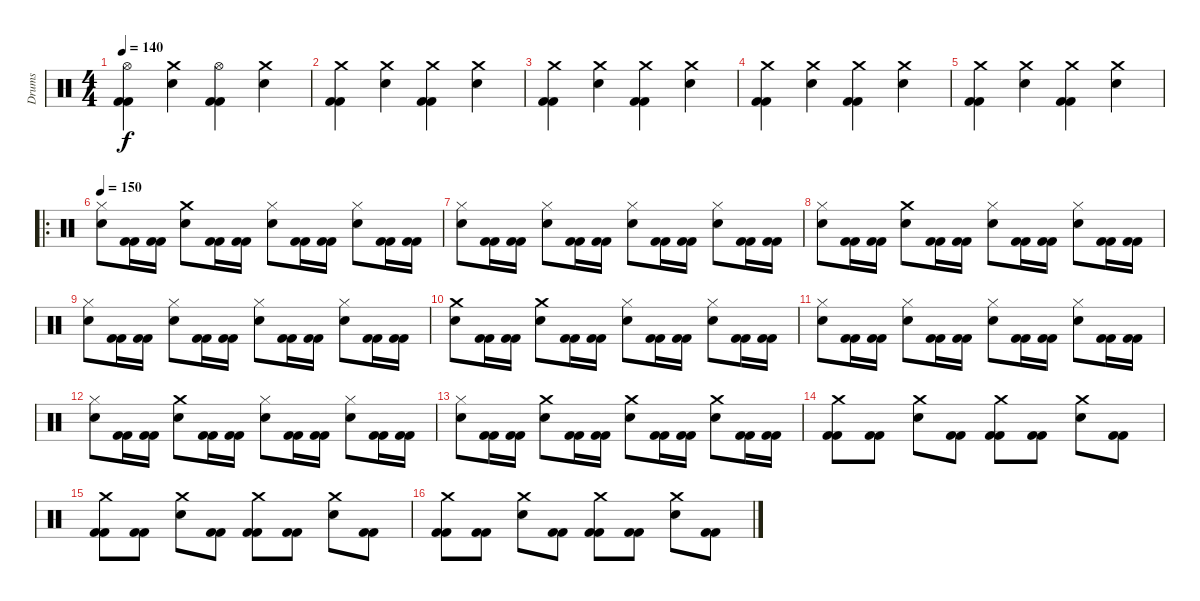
\track ("Drums" "Drums") {instrument percussion}
\staff {score}
\articulation defaults
\ts (4 4)
\tempo 140
\clef neutral
\ks c
("Hi-Hat (open)" "Kick (hit) 2" "Kick (hit) 2").4{dy f} ("Electric Snare (hit)" "Crash medium (hit)").4 ("Kick (hit) 2" "Kick (hit) 2" "Hi-Hat (open)").4 ("Crash medium (hit)" "Electric Snare (hit)").4 |
("Crash medium (hit)" "Kick (hit) 2" "Kick (hit) 2").4 ("Electric Snare (hit)" "Crash medium (hit)").4 ("Kick (hit) 2" "Kick (hit) 2" "Crash medium (hit)").4 ("Crash medium (hit)" "Electric Snare (hit)").4 |
("Crash medium (hit)" "Kick (hit) 2" "Kick (hit) 2").4 ("Electric Snare (hit)" "Crash medium (hit)").4 ("Kick (hit) 2" "Kick (hit) 2" "Crash medium (hit)").4 ("Crash medium (hit)" "Electric Snare (hit)").4 |
("Crash medium (hit)" "Kick (hit) 2" "Kick (hit) 2").4 ("Electric Snare (hit)" "Crash medium (hit)").4 ("Kick (hit) 2" "Kick (hit) 2" "Crash medium (hit)").4 ("Crash medium (hit)" "Electric Snare (hit)").4 |
("Crash medium (hit)" "Kick (hit) 2" "Kick (hit) 2").4 ("Electric Snare (hit)" "Crash medium (hit)").4 ("Kick (hit) 2" "Kick (hit) 2" "Crash medium (hit)").4 ("Crash medium (hit)" "Electric Snare (hit)").4 |
\ro
\tempo 150
("Hi-Hat (closed)" "Electric Snare (hit)").8 ("Kick (hit) 2" "Kick (hit) 2").16 ("Kick (hit) 2" "Kick (hit) 2").16 ("Electric Snare (hit)" "Crash medium (hit)").8 ("Kick (hit) 2" "Kick (hit) 2").16 ("Kick (hit) 2" "Kick (hit) 2").16 ("Hi-Hat (closed)" "Electric Snare (hit)").8 ("Kick (hit) 2" "Kick (hit) 2").16 ("Kick (hit) 2" "Kick (hit) 2").16 ("Electric Snare (hit)" "Hi-Hat (closed)").8 ("Kick (hit) 2" "Kick (hit) 2").16 ("Kick (hit) 2" "Kick (hit) 2").16 |
("Electric Snare (hit)" "Hi-Hat (closed)").8 ("Kick (hit) 2" "Kick (hit) 2").16 ("Kick (hit) 2" "Kick (hit) 2").16 ("Hi-Hat (closed)" "Electric Snare (hit)").8 ("Kick (hit) 2" "Kick (hit) 2").16 ("Kick (hit) 2" "Kick (hit) 2").16 ("Electric Snare (hit)" "Hi-Hat (closed)").8 ("Kick (hit) 2" "Kick (hit) 2").16 ("Kick (hit) 2" "Kick (hit) 2").16 ("Hi-Hat (closed)" "Electric Snare (hit)").8 ("Kick (hit) 2" "Kick (hit) 2").16 ("Kick (hit) 2" "Kick (hit) 2").16 |
("Electric Snare (hit)" "Hi-Hat (closed)").8 ("Kick (hit) 2" "Kick (hit) 2").16 ("Kick (hit) 2" "Kick (hit) 2").16 ("Crash medium (hit)" "Electric Snare (hit)").8 ("Kick (hit) 2" "Kick (hit) 2").16 ("Kick (hit) 2" "Kick (hit) 2").16 ("Electric Snare (hit)" "Hi-Hat (closed)").8 ("Kick (hit) 2" "Kick (hit) 2").16 ("Kick (hit) 2" "Kick (hit) 2").16 ("Hi-Hat (closed)" "Electric Snare (hit)").8 ("Kick (hit) 2" "Kick (hit) 2").16 ("Kick (hit) 2" "Kick (hit) 2").16 |
("Hi-Hat (closed)" "Electric Snare (hit)").8 ("Kick (hit) 2" "Kick (hit) 2").16 ("Kick (hit) 2" "Kick (hit) 2").16 ("Electric Snare (hit)" "Hi-Hat (closed)").8 ("Kick (hit) 2" "Kick (hit) 2").16 ("Kick (hit) 2" "Kick (hit) 2").16 ("Hi-Hat (closed)" "Electric Snare (hit)").8 ("Kick (hit) 2" "Kick (hit) 2").16 ("Kick (hit) 2" "Kick (hit) 2").16 ("Electric Snare (hit)" "Hi-Hat (closed)").8 ("Kick (hit) 2" "Kick (hit) 2").16 ("Kick (hit) 2" "Kick (hit) 2").16 |
("Crash medium (hit)" "Electric Snare (hit)").8 ("Kick (hit) 2" "Kick (hit) 2").16 ("Kick (hit) 2" "Kick (hit) 2").16 ("Electric Snare (hit)" "Crash medium (hit)").8 ("Kick (hit) 2" "Kick (hit) 2").16 ("Kick (hit) 2" "Kick (hit) 2").16 ("Hi-Hat (closed)" "Electric Snare (hit)").8 ("Kick (hit) 2" "Kick (hit) 2").16 ("Kick (hit) 2" "Kick (hit) 2").16 ("Electric Snare (hit)" "Hi-Hat (closed)").8 ("Kick (hit) 2" "Kick (hit) 2").16 ("Kick (hit) 2" "Kick (hit) 2").16 |
("Electric Snare (hit)" "Hi-Hat (closed)").8 ("Kick (hit) 2" "Kick (hit) 2").16 ("Kick (hit) 2" "Kick (hit) 2").16 ("Hi-Hat (closed)" "Electric Snare (hit)").8 ("Kick (hit) 2" "Kick (hit) 2").16 ("Kick (hit) 2" "Kick (hit) 2").16 ("Electric Snare (hit)" "Hi-Hat (closed)").8 ("Kick (hit) 2" "Kick (hit) 2").16 ("Kick (hit) 2" "Kick (hit) 2").16 ("Hi-Hat (closed)" "Electric Snare (hit)").8 ("Kick (hit) 2" "Kick (hit) 2").16 ("Kick (hit) 2" "Kick (hit) 2").16 |
("Electric Snare (hit)" "Hi-Hat (closed)").8 ("Kick (hit) 2" "Kick (hit) 2").16 ("Kick (hit) 2" "Kick (hit) 2").16 ("Crash medium (hit)" "Electric Snare (hit)").8 ("Kick (hit) 2" "Kick (hit) 2").16 ("Kick (hit) 2" "Kick (hit) 2").16 ("Electric Snare (hit)" "Hi-Hat (closed)").8 ("Kick (hit) 2" "Kick (hit) 2").16 ("Kick (hit) 2" "Kick (hit) 2").16 ("Hi-Hat (closed)" "Electric Snare (hit)").8 ("Kick (hit) 2" "Kick (hit) 2").16 ("Kick (hit) 2" "Kick (hit) 2").16 |
("Hi-Hat (closed)" "Electric Snare (hit)").8 ("Kick (hit) 2" "Kick (hit) 2").16 ("Kick (hit) 2" "Kick (hit) 2").16 ("Electric Snare (hit)" "Crash medium (hit)").8 ("Kick (hit) 2" "Kick (hit) 2").16 ("Kick (hit) 2" "Kick (hit) 2").16 ("Crash medium (hit)" "Electric Snare (hit)").8 ("Kick (hit) 2" "Kick (hit) 2").16 ("Kick (hit) 2" "Kick (hit) 2").16 ("Electric Snare (hit)" "Crash medium (hit)").8 ("Kick (hit) 2" "Kick (hit) 2").16 ("Kick (hit) 2" "Kick (hit) 2").16 |
("Crash medium (hit)" "Kick (hit) 2" "Kick (hit) 2").8 ("Kick (hit) 2" "Kick (hit) 2").8 ("Electric Snare (hit)" "Crash medium (hit)").8 ("Kick (hit) 2" "Kick (hit) 2").8 ("Kick (hit) 2" "Crash medium (hit)" "Kick (hit) 2").8 ("Kick (hit) 2" "Kick (hit) 2").8 ("Crash medium (hit)" "Electric Snare (hit)").8 ("Kick (hit) 2" "Kick (hit) 2").8 |
("Crash medium (hit)" "Kick (hit) 2" "Kick (hit) 2").8 ("Kick (hit) 2" "Kick (hit) 2").8 ("Electric Snare (hit)" "Crash medium (hit)").8 ("Kick (hit) 2" "Kick (hit) 2").8 ("Kick (hit) 2" "Crash medium (hit)" "Kick (hit) 2").8 ("Kick (hit) 2" "Kick (hit) 2").8 ("Crash medium (hit)" "Electric Snare (hit)").8 ("Kick (hit) 2" "Kick (hit) 2").8 |
("Crash medium (hit)" "Kick (hit) 2" "Kick (hit) 2").8 ("Kick (hit) 2" "Kick (hit) 2").8 ("Electric Snare (hit)" "Crash medium (hit)").8 ("Kick (hit) 2" "Kick (hit) 2").8 ("Kick (hit) 2" "Crash medium (hit)" "Kick (hit) 2").8 ("Kick (hit) 2" "Kick (hit) 2").8 ("Crash medium (hit)" "Electric Snare (hit)").8 ("Kick (hit) 2" "Kick (hit) 2").8
